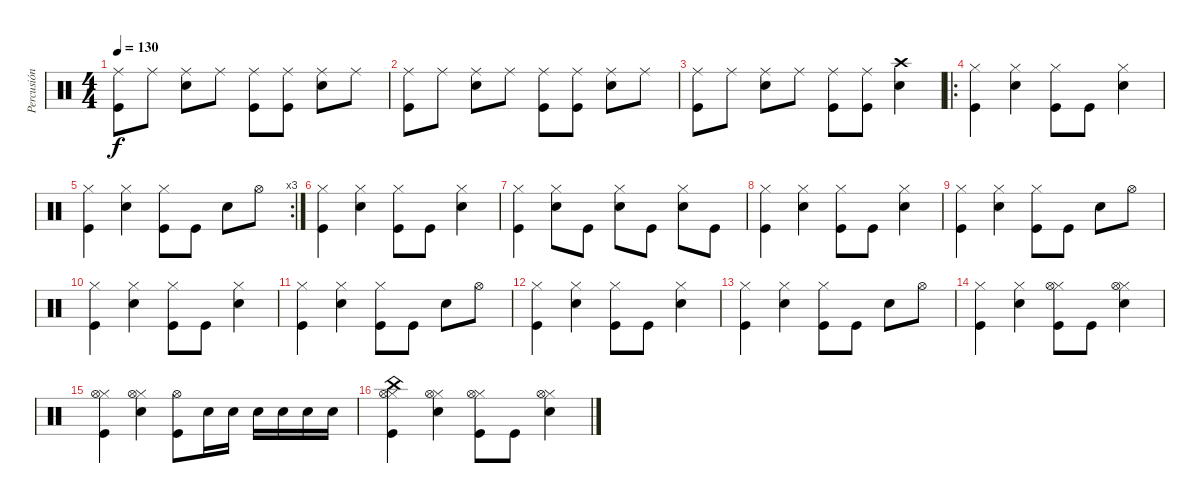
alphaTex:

\track ("Percusión" "Percusión") {instrument percussion}
\staff {score}
\articulation defaults
\ts (4 4)
\tempo 130
\clef neutral
\ks c
("Kick (hit)" "Ride (middle)").8{dy f} "Ride (middle)".8 ("Ride (middle)" "Snare (hit) 2").8 "Ride (middle)".8 ("Ride (middle)" "Kick (hit)").8 ("Ride (middle)" "Kick (hit)").8 ("Ride (middle)" "Snare (hit) 2").8 "Ride (middle)".8 |
("Kick (hit)" "Ride (middle)").8 "Ride (middle)".8 ("Ride (middle)" "Snare (hit) 2").8 "Ride (middle)".8 ("Ride (middle)" "Kick (hit)").8 ("Ride (middle)" "Kick (hit)").8 ("Ride (middle)" "Snare (hit) 2").8 "Ride (middle)".8 |
("Kick (hit)" "Ride (middle)").8 "Ride (middle)".8 ("Ride (middle)" "Snare (hit) 2").8 "Ride (middle)".8 ("Ride (middle)" "Kick (hit)").8 ("Ride (middle)" "Kick (hit)").8 ("Crash high (hit)" "Snare (hit) 2").4 |
\ro
("Kick (hit)" "Hi-Hat (closed)").4 ("Snare (hit) 2" "Hi-Hat (closed)").4 ("Kick (hit)" "Hi-Hat (closed)").8 "Kick (hit)".8 ("Snare (hit) 2" "Hi-Hat (closed)").4 |
\rc 3
("Kick (hit)" "Hi-Hat (closed)").4 ("Snare (hit) 2" "Hi-Hat (closed)").4 ("Kick (hit)" "Hi-Hat (closed)").8 "Kick (hit)".8 "Snare (hit) 2".8 "Hi-Hat (open)".8 |
("Kick (hit)" "Hi-Hat (closed)").4 ("Snare (hit) 2" "Hi-Hat (closed)").4 ("Kick (hit)" "Hi-Hat (closed)").8 "Kick (hit)".8 ("Snare (hit) 2" "Hi-Hat (closed)").4 |
("Kick (hit)" "Hi-Hat (closed)").4 ("Snare (hit) 2" "Hi-Hat (closed)").8 "Kick (hit)".8 ("Snare (hit) 2" "Hi-Hat (closed)").8 "Kick (hit)".8 ("Snare (hit) 2" "Hi-Hat (closed)").8 "Kick (hit)".8 |
("Kick (hit)" "Hi-Hat (closed)").4 ("Snare (hit) 2" "Hi-Hat (closed)").4 ("Kick (hit)" "Hi-Hat (closed)").8 "Kick (hit)".8 ("Snare (hit) 2" "Hi-Hat (closed)").4 |
("Kick (hit)" "Hi-Hat (closed)").4 ("Snare (hit) 2" "Hi-Hat (closed)").4 ("Kick (hit)" "Hi-Hat (closed)").8 "Kick (hit)".8 "Snare (hit) 2".8 "Hi-Hat (open)".8 |
("Kick (hit)" "Hi-Hat (closed)").4 ("Snare (hit) 2" "Hi-Hat (closed)").4 ("Kick (hit)" "Hi-Hat (closed)").8 "Kick (hit)".8 ("Snare (hit) 2" "Hi-Hat (closed)").4 |
("Kick (hit)" "Hi-Hat (closed)").4 ("Snare (hit) 2" "Hi-Hat (closed)").4 ("Kick (hit)" "Hi-Hat (closed)").8 "Kick (hit)".8 "Snare (hit) 2".8 "Hi-Hat (open)".8 |
("Kick (hit)" "Hi-Hat (closed)").4 ("Snare (hit) 2" "Hi-Hat (closed)").4 ("Kick (hit)" "Hi-Hat (closed)").8 "Kick (hit)".8 ("Snare (hit) 2" "Hi-Hat (closed)").4 |
("Kick (hit)" "Hi-Hat (closed)").4 ("Snare (hit) 2" "Hi-Hat (closed)").4 ("Kick (hit)" "Hi-Hat (closed)").8 "Kick (hit)".8 "Snare (hit) 2".8 "Hi-Hat (open)".8 |
("Kick (hit)" "Hi-Hat (closed)").4 ("Snare (hit) 2" "Hi-Hat (closed)").4 ("Kick (hit)" "Hi-Hat (closed)" "Hi-Hat (open)").8 "Kick (hit)".8 ("Snare (hit) 2" "Hi-Hat (closed)" "Hi-Hat (open)").4 |
("Kick (hit)" "Hi-Hat (closed)" "Hi-Hat (open)").4 ("Snare (hit) 2" "Hi-Hat (closed)" "Hi-Hat (open)").4 ("Kick (hit)" "Hi-Hat (open)").8 "Snare (hit) 2".16 "Snare (hit) 2".16 "Snare (hit) 2".16 "Snare (hit) 2".16 "Snare (hit) 2".16 "Snare (hit) 2".16 |
("Kick (hit)" "Hi-Hat (closed)" "Hi-Hat (open)" "China (hit)").4 ("Snare (hit) 2" "Hi-Hat (closed)" "Hi-Hat (open)").4 ("Kick (hit)" "Hi-Hat (closed)" "Hi-Hat (open)").8 "Kick (hit)".8 ("Snare (hit) 2" "Hi-Hat (closed)" "Hi-Hat (open)").4
